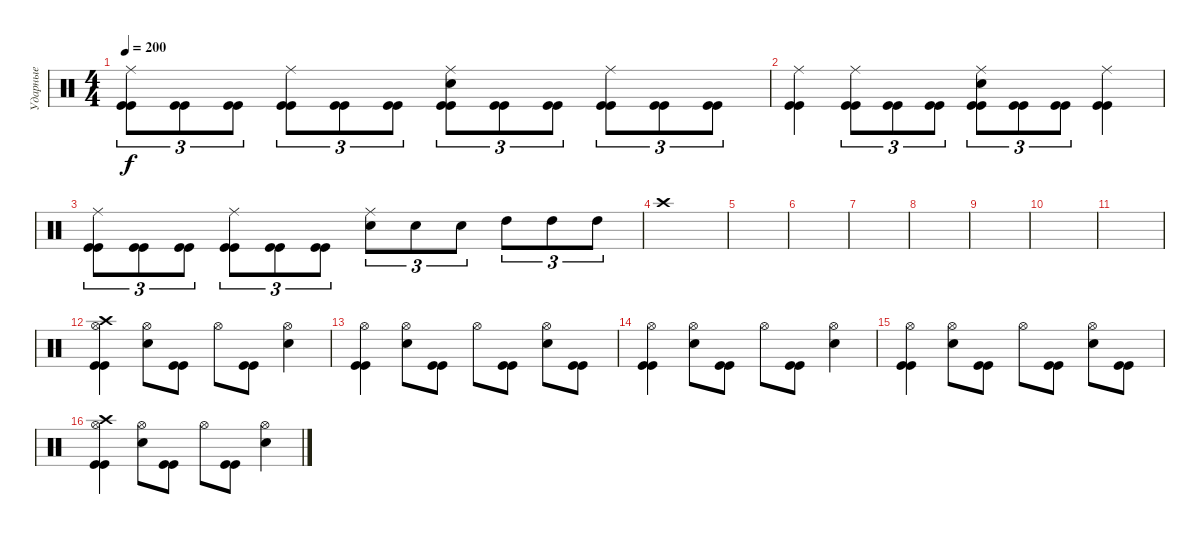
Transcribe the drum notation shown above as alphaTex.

\track ("Ударные" "Ударные") {instrument percussion}
\staff {score}
\articulation defaults
\ts (4 4)
\tempo 200
\clef neutral
\ks c
("Ride (middle)" "Kick (hit)" "Kick (hit)").8{tu (3 2) dy f} ("Kick (hit)" "Kick (hit)").8{tu (3 2)} ("Kick (hit)" "Kick (hit)").8{tu (3 2)} ("Ride (middle)" "Kick (hit)" "Kick (hit)").8{tu (3 2)} ("Kick (hit)" "Kick (hit)").8{tu (3 2)} ("Kick (hit)" "Kick (hit)").8{tu (3 2)} ("Ride (middle)" "Electric Snare (hit)" "Kick (hit)" "Kick (hit)").8{tu (3 2)} ("Kick (hit)" "Kick (hit)").8{tu (3 2)} ("Kick (hit)" "Kick (hit)").8{tu (3 2)} ("Ride (middle)" "Kick (hit)" "Kick (hit)").8{tu (3 2)} ("Kick (hit)" "Kick (hit)").8{tu (3 2)} ("Kick (hit)" "Kick (hit)").8{tu (3 2)} |
("Ride (middle)" "Kick (hit)" "Kick (hit)").4 ("Ride (middle)" "Kick (hit)" "Kick (hit)").8{tu (3 2)} ("Kick (hit)" "Kick (hit)").8{tu (3 2)} ("Kick (hit)" "Kick (hit)").8{tu (3 2)} ("Ride (middle)" "Electric Snare (hit)" "Kick (hit)" "Kick (hit)").8{tu (3 2)} ("Kick (hit)" "Kick (hit)").8{tu (3 2)} ("Kick (hit)" "Kick (hit)").8{tu (3 2)} ("Ride (middle)" "Kick (hit)" "Kick (hit)").4 |
("Ride (middle)" "Kick (hit)" "Kick (hit)").8{tu (3 2)} ("Kick (hit)" "Kick (hit)").8{tu (3 2)} ("Kick (hit)" "Kick (hit)").8{tu (3 2)} ("Ride (middle)" "Kick (hit)" "Kick (hit)").8{tu (3 2)} ("Kick (hit)" "Kick (hit)").8{tu (3 2)} ("Kick (hit)" "Kick (hit)").8{tu (3 2)} ("Ride (middle)" "Electric Snare (hit)").8{tu (3 2)} "Electric Snare (hit)".8{tu (3 2)} "Electric Snare (hit)".8{tu (3 2)} "High Tom (hit)".8{tu (3 2)} "High Tom (hit)".8{tu (3 2)} "High Tom (hit)".8{tu (3 2)} |
"Crash high (hit)".1 |
|
|
|
|
|
|
|
("Crash high (hit)" "Hi-Hat (open)" "Kick (hit)" "Kick (hit)").4 ("Hi-Hat (open)" "Electric Snare (hit)").8 ("Kick (hit)" "Kick (hit)").8 "Hi-Hat (open)".8 ("Kick (hit)" "Kick (hit)").8 ("Hi-Hat (open)" "Electric Snare (hit)").4 |
("Hi-Hat (open)" "Kick (hit)" "Kick (hit)").4 ("Hi-Hat (open)" "Electric Snare (hit)").8 ("Kick (hit)" "Kick (hit)").8 "Hi-Hat (open)".8 ("Kick (hit)" "Kick (hit)").8 ("Hi-Hat (open)" "Electric Snare (hit)").8 ("Kick (hit)" "Kick (hit)").8 |
("Hi-Hat (open)" "Kick (hit)" "Kick (hit)").4 ("Hi-Hat (open)" "Electric Snare (hit)").8 ("Kick (hit)" "Kick (hit)").8 "Hi-Hat (open)".8 ("Kick (hit)" "Kick (hit)").8 ("Hi-Hat (open)" "Electric Snare (hit)").4 |
("Hi-Hat (open)" "Kick (hit)" "Kick (hit)").4 ("Hi-Hat (open)" "Electric Snare (hit)").8 ("Kick (hit)" "Kick (hit)").8 "Hi-Hat (open)".8 ("Kick (hit)" "Kick (hit)").8 ("Hi-Hat (open)" "Electric Snare (hit)").8 ("Kick (hit)" "Kick (hit)").8 |
("Crash high (hit)" "Hi-Hat (open)" "Kick (hit)" "Kick (hit)").4 ("Hi-Hat (open)" "Electric Snare (hit)").8 ("Kick (hit)" "Kick (hit)").8 "Hi-Hat (open)".8 ("Kick (hit)" "Kick (hit)").8 ("Hi-Hat (open)" "Electric Snare (hit)").4
